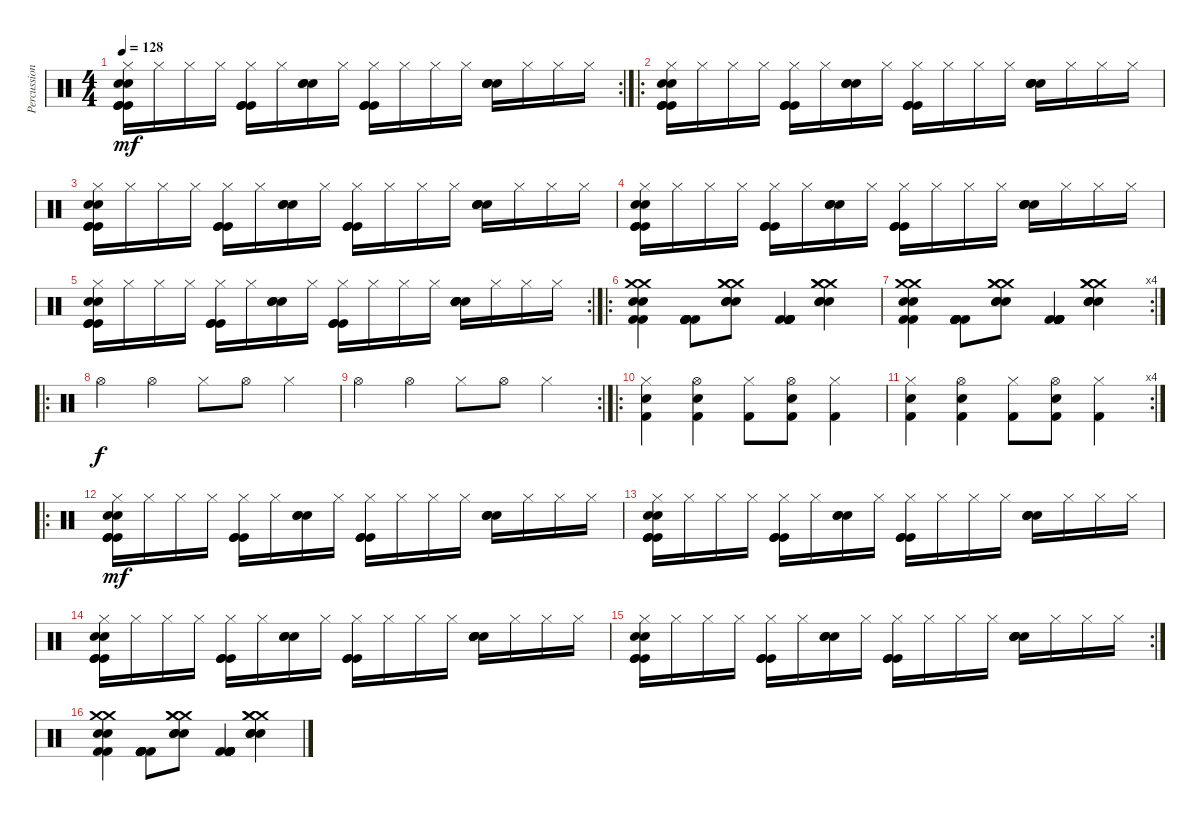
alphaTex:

\track ("Percussion" "Percussion") {instrument percussion}
\staff {score}
\articulation defaults
\rc 2
\ts (4 4)
\tempo 128
\clef neutral
\ks c
("Hi-Hat (closed)" "Kick (hit)" "Kick (hit)" "Kick (hit)" "Snare (hit) 2" "Snare (hit) 2").16{dy mf} "Hi-Hat (closed)".16 "Hi-Hat (closed)".16 "Hi-Hat (closed)".16 ("Hi-Hat (closed)" "Kick (hit)" "Kick (hit)" "Kick (hit)").16 "Hi-Hat (closed)".16 ("Snare (hit) 2" "Snare (hit) 2" "Snare (hit) 2").16 "Hi-Hat (closed)".16 ("Hi-Hat (closed)" "Kick (hit)" "Kick (hit)" "Kick (hit)").16 "Hi-Hat (closed)".16 "Hi-Hat (closed)".16 "Hi-Hat (closed)".16 ("Snare (hit) 2" "Snare (hit) 2" "Snare (hit) 2" "Snare (hit) 2").16 "Hi-Hat (closed)".16 "Hi-Hat (closed)".16 "Hi-Hat (closed)".16 |
\ro
("Hi-Hat (closed)" "Kick (hit)" "Kick (hit)" "Kick (hit)" "Snare (hit) 2" "Snare (hit) 2").16 "Hi-Hat (closed)".16 "Hi-Hat (closed)".16 "Hi-Hat (closed)".16 ("Hi-Hat (closed)" "Kick (hit)" "Kick (hit)" "Kick (hit)").16 "Hi-Hat (closed)".16 ("Snare (hit) 2" "Snare (hit) 2" "Snare (hit) 2").16 "Hi-Hat (closed)".16 ("Hi-Hat (closed)" "Kick (hit)" "Kick (hit)" "Kick (hit)").16 "Hi-Hat (closed)".16 "Hi-Hat (closed)".16 "Hi-Hat (closed)".16 ("Snare (hit) 2" "Snare (hit) 2" "Snare (hit) 2" "Snare (hit) 2").16 "Hi-Hat (closed)".16 "Hi-Hat (closed)".16 "Hi-Hat (closed)".16 |
("Hi-Hat (closed)" "Kick (hit)" "Kick (hit)" "Kick (hit)" "Snare (hit) 2" "Snare (hit) 2").16 "Hi-Hat (closed)".16 "Hi-Hat (closed)".16 "Hi-Hat (closed)".16 ("Hi-Hat (closed)" "Kick (hit)" "Kick (hit)" "Kick (hit)").16 "Hi-Hat (closed)".16 ("Snare (hit) 2" "Snare (hit) 2" "Snare (hit) 2").16 "Hi-Hat (closed)".16 ("Hi-Hat (closed)" "Kick (hit)" "Kick (hit)" "Kick (hit)").16 "Hi-Hat (closed)".16 "Hi-Hat (closed)".16 "Hi-Hat (closed)".16 ("Snare (hit) 2" "Snare (hit) 2" "Snare (hit) 2" "Snare (hit) 2").16 "Hi-Hat (closed)".16 "Hi-Hat (closed)".16 "Hi-Hat (closed)".16 |
("Hi-Hat (closed)" "Kick (hit)" "Kick (hit)" "Kick (hit)" "Snare (hit) 2" "Snare (hit) 2").16 "Hi-Hat (closed)".16 "Hi-Hat (closed)".16 "Hi-Hat (closed)".16 ("Hi-Hat (closed)" "Kick (hit)" "Kick (hit)" "Kick (hit)").16 "Hi-Hat (closed)".16 ("Snare (hit) 2" "Snare (hit) 2" "Snare (hit) 2").16 "Hi-Hat (closed)".16 ("Hi-Hat (closed)" "Kick (hit)" "Kick (hit)" "Kick (hit)").16 "Hi-Hat (closed)".16 "Hi-Hat (closed)".16 "Hi-Hat (closed)".16 ("Snare (hit) 2" "Snare (hit) 2" "Snare (hit) 2" "Snare (hit) 2").16 "Hi-Hat (closed)".16 "Hi-Hat (closed)".16 "Hi-Hat (closed)".16 |
\rc 2
("Hi-Hat (closed)" "Kick (hit)" "Kick (hit)" "Kick (hit)" "Snare (hit) 2" "Snare (hit) 2").16 "Hi-Hat (closed)".16 "Hi-Hat (closed)".16 "Hi-Hat (closed)".16 ("Hi-Hat (closed)" "Kick (hit)" "Kick (hit)" "Kick (hit)").16 "Hi-Hat (closed)".16 ("Snare (hit) 2" "Snare (hit) 2" "Snare (hit) 2").16 "Hi-Hat (closed)".16 ("Hi-Hat (closed)" "Kick (hit)" "Kick (hit)" "Kick (hit)").16 "Hi-Hat (closed)".16 "Hi-Hat (closed)".16 "Hi-Hat (closed)".16 ("Snare (hit) 2" "Snare (hit) 2" "Snare (hit) 2" "Snare (hit) 2").16 "Hi-Hat (closed)".16 "Hi-Hat (closed)".16 "Hi-Hat (closed)".16 |
\ro
("Snare (hit) 2" "Snare (hit) 2" "Kick (hit) 2" "Kick (hit) 2" "Crash medium (hit)" "Crash medium (hit)").4 ("Kick (hit) 2" "Kick (hit) 2" "Kick (hit) 2" "Kick (hit) 2" "Kick (hit) 2" "Kick (hit) 2").8 ("Snare (hit) 2" "Crash medium (hit)" "Snare (hit) 2" "Crash medium (hit)" "Snare (hit) 2" "Crash medium (hit)").8 ("Kick (hit) 2" "Kick (hit) 2" "Kick (hit) 2" "Kick (hit) 2" "Kick (hit) 2" "Kick (hit) 2").4 ("Snare (hit) 2" "Crash medium (hit)" "Snare (hit) 2" "Crash medium (hit)" "Snare (hit) 2" "Crash medium (hit)").4 |
\rc 4
("Snare (hit) 2" "Snare (hit) 2" "Kick (hit) 2" "Kick (hit) 2" "Crash medium (hit)" "Crash medium (hit)").4 ("Kick (hit) 2" "Kick (hit) 2" "Kick (hit) 2" "Kick (hit) 2" "Kick (hit) 2" "Kick (hit) 2").8 ("Snare (hit) 2" "Crash medium (hit)" "Snare (hit) 2" "Crash medium (hit)" "Snare (hit) 2" "Crash medium (hit)").8 ("Kick (hit) 2" "Kick (hit) 2" "Kick (hit) 2" "Kick (hit) 2" "Kick (hit) 2" "Kick (hit) 2").4 ("Snare (hit) 2" "Crash medium (hit)" "Snare (hit) 2" "Crash medium (hit)" "Snare (hit) 2" "Crash medium (hit)").4 |
\ro "Hi-Hat (open)".4{dy f} "Hi-Hat (open)".4 "Hi-Hat (closed)".8 "Hi-Hat (open)".8 "Hi-Hat (closed)".4
|
\rc 2 "Hi-Hat (open)".4 "Hi-Hat (open)".4 "Hi-Hat (closed)".8 "Hi-Hat (open)".8 "Hi-Hat (closed)".4
|
\ro
("Hi-Hat (closed)" "Kick (hit) 2" "Snare (hit) 2").4 ("Hi-Hat (open)" "Kick (hit) 2" "Snare (hit) 2").4 ("Hi-Hat (closed)" "Kick (hit) 2").8 ("Hi-Hat (open)" "Kick (hit) 2" "Snare (hit) 2").8 ("Hi-Hat (closed)" "Kick (hit) 2").4 |
\rc 4
("Hi-Hat (closed)" "Kick (hit) 2" "Snare (hit) 2").4 ("Hi-Hat (open)" "Kick (hit) 2" "Snare (hit) 2").4 ("Hi-Hat (closed)" "Kick (hit) 2").8 ("Hi-Hat (open)" "Kick (hit) 2" "Snare (hit) 2").8 ("Hi-Hat (closed)" "Kick (hit) 2").4 |
\ro
("Hi-Hat (closed)" "Kick (hit)" "Kick (hit)" "Kick (hit)" "Snare (hit) 2" "Snare (hit) 2").16{dy mf} "Hi-Hat (closed)".16 "Hi-Hat (closed)".16 "Hi-Hat (closed)".16 ("Hi-Hat (closed)" "Kick (hit)" "Kick (hit)" "Kick (hit)").16 "Hi-Hat (closed)".16 ("Snare (hit) 2" "Snare (hit) 2" "Snare (hit) 2").16 "Hi-Hat (closed)".16 ("Hi-Hat (closed)" "Kick (hit)" "Kick (hit)" "Kick (hit)").16 "Hi-Hat (closed)".16 "Hi-Hat (closed)".16 "Hi-Hat (closed)".16 ("Snare (hit) 2" "Snare (hit) 2" "Snare (hit) 2" "Snare (hit) 2").16 "Hi-Hat (closed)".16 "Hi-Hat (closed)".16 "Hi-Hat (closed)".16 |
("Hi-Hat (closed)" "Kick (hit)" "Kick (hit)" "Kick (hit)" "Snare (hit) 2" "Snare (hit) 2").16 "Hi-Hat (closed)".16 "Hi-Hat (closed)".16 "Hi-Hat (closed)".16 ("Hi-Hat (closed)" "Kick (hit)" "Kick (hit)" "Kick (hit)").16 "Hi-Hat (closed)".16 ("Snare (hit) 2" "Snare (hit) 2" "Snare (hit) 2").16 "Hi-Hat (closed)".16 ("Hi-Hat (closed)" "Kick (hit)" "Kick (hit)" "Kick (hit)").16 "Hi-Hat (closed)".16 "Hi-Hat (closed)".16 "Hi-Hat (closed)".16 ("Snare (hit) 2" "Snare (hit) 2" "Snare (hit) 2" "Snare (hit) 2").16 "Hi-Hat (closed)".16 "Hi-Hat (closed)".16 "Hi-Hat (closed)".16 |
("Hi-Hat (closed)" "Kick (hit)" "Kick (hit)" "Kick (hit)" "Snare (hit) 2" "Snare (hit) 2").16 "Hi-Hat (closed)".16 "Hi-Hat (closed)".16 "Hi-Hat (closed)".16 ("Hi-Hat (closed)" "Kick (hit)" "Kick (hit)" "Kick (hit)").16 "Hi-Hat (closed)".16 ("Snare (hit) 2" "Snare (hit) 2" "Snare (hit) 2").16 "Hi-Hat (closed)".16 ("Hi-Hat (closed)" "Kick (hit)" "Kick (hit)" "Kick (hit)").16 "Hi-Hat (closed)".16 "Hi-Hat (closed)".16 "Hi-Hat (closed)".16 ("Snare (hit) 2" "Snare (hit) 2" "Snare (hit) 2" "Snare (hit) 2").16 "Hi-Hat (closed)".16 "Hi-Hat (closed)".16 "Hi-Hat (closed)".16 |
\rc 2
("Hi-Hat (closed)" "Kick (hit)" "Kick (hit)" "Kick (hit)" "Snare (hit) 2" "Snare (hit) 2").16 "Hi-Hat (closed)".16 "Hi-Hat (closed)".16 "Hi-Hat (closed)".16 ("Hi-Hat (closed)" "Kick (hit)" "Kick (hit)" "Kick (hit)").16 "Hi-Hat (closed)".16 ("Snare (hit) 2" "Snare (hit) 2" "Snare (hit) 2").16 "Hi-Hat (closed)".16 ("Hi-Hat (closed)" "Kick (hit)" "Kick (hit)" "Kick (hit)").16 "Hi-Hat (closed)".16 "Hi-Hat (closed)".16 "Hi-Hat (closed)".16 ("Snare (hit) 2" "Snare (hit) 2" "Snare (hit) 2" "Snare (hit) 2").16 "Hi-Hat (closed)".16 "Hi-Hat (closed)".16 "Hi-Hat (closed)".16 |
("Snare (hit) 2" "Snare (hit) 2" "Kick (hit) 2" "Kick (hit) 2" "Crash medium (hit)" "Crash medium (hit)").4 ("Kick (hit) 2" "Kick (hit) 2" "Kick (hit) 2" "Kick (hit) 2" "Kick (hit) 2" "Kick (hit) 2").8 ("Snare (hit) 2" "Crash medium (hit)" "Snare (hit) 2" "Crash medium (hit)" "Snare (hit) 2" "Crash medium (hit)").8 ("Kick (hit) 2" "Kick (hit) 2" "Kick (hit) 2" "Kick (hit) 2" "Kick (hit) 2" "Kick (hit) 2").4 ("Snare (hit) 2" "Crash medium (hit)" "Snare (hit) 2" "Crash medium (hit)" "Snare (hit) 2" "Crash medium (hit)").4
